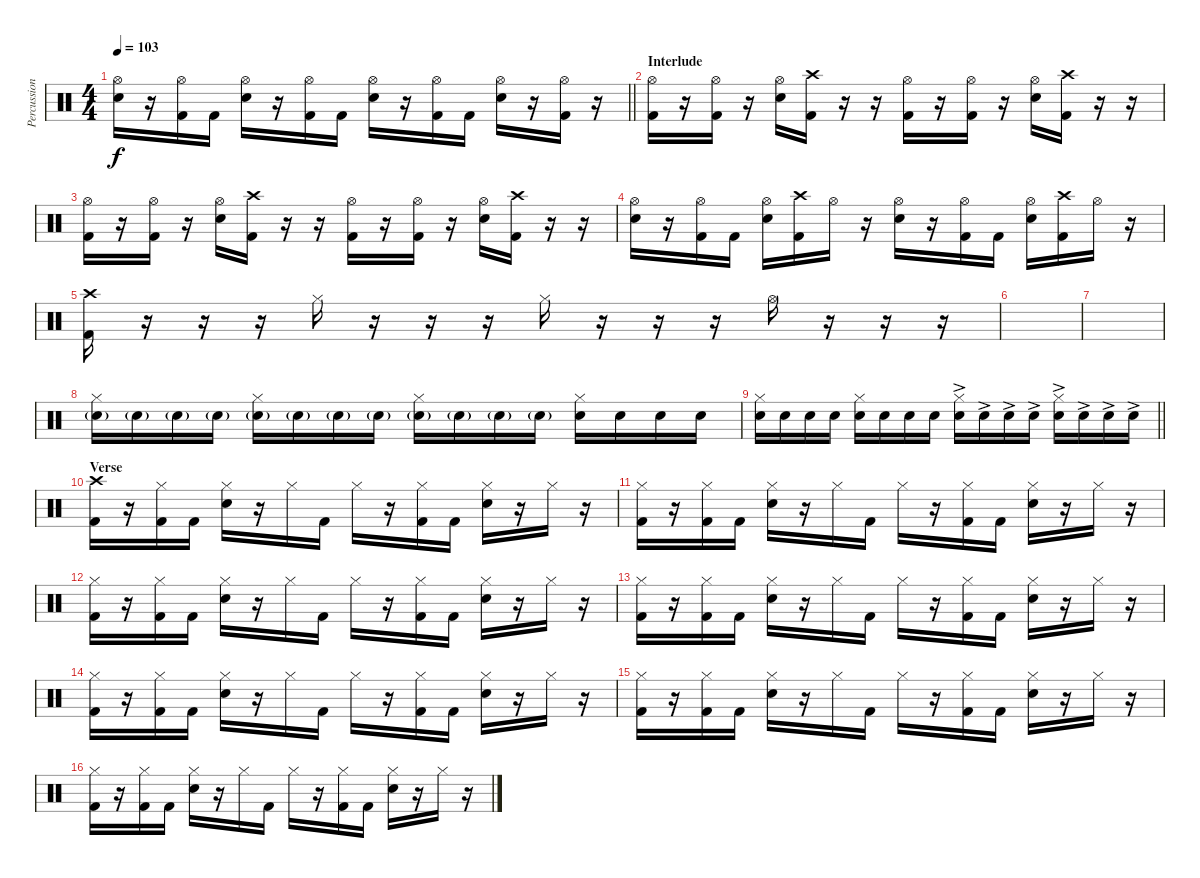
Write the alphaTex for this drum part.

\track ("Percussion" "Percussion") {instrument percussion}
\staff {score}
\articulation defaults
\ts (4 4)
\tempo 103
\clef neutral
\barLineRight lightlight
\ks c
("Hi-Hat (open)" "Snare (hit) 2").16{dy f} r.16 ("Hi-Hat (open)" "Kick (hit) 2").16 "Kick (hit) 2".16 ("Hi-Hat (open)" "Snare (hit) 2").16 r.16 ("Hi-Hat (open)" "Kick (hit) 2").16 "Kick (hit) 2".16 ("Hi-Hat (open)" "Snare (hit) 2").16 r.16 ("Hi-Hat (open)" "Kick (hit) 2").16 "Kick (hit) 2".16 ("Hi-Hat (open)" "Snare (hit) 2").16 r.16 ("Hi-Hat (open)" "Kick (hit) 2").16 r.16 |
\section ("" "Interlude")
("Hi-Hat (open)" "Kick (hit) 2").16 r.16 ("Hi-Hat (open)" "Kick (hit) 2").16 r.16 ("Hi-Hat (open)" "Snare (hit) 2").16 ("Crash high (hit)" "Kick (hit) 2").16 r.16 r.16 ("Hi-Hat (open)" "Kick (hit) 2").16 r.16 ("Hi-Hat (open)" "Kick (hit) 2").16 r.16 ("Hi-Hat (open)" "Snare (hit) 2").16 ("Crash high (hit)" "Kick (hit) 2").16 r.16 r.16 |
("Hi-Hat (open)" "Kick (hit) 2").16 r.16 ("Hi-Hat (open)" "Kick (hit) 2").16 r.16 ("Hi-Hat (open)" "Snare (hit) 2").16 ("Crash high (hit)" "Kick (hit) 2").16 r.16 r.16 ("Hi-Hat (open)" "Kick (hit) 2").16 r.16 ("Hi-Hat (open)" "Kick (hit) 2").16 r.16 ("Hi-Hat (open)" "Snare (hit) 2").16 ("Crash high (hit)" "Kick (hit) 2").16 r.16 r.16 |
("Hi-Hat (open)" "Snare (hit) 2").16 r.16 ("Hi-Hat (open)" "Kick (hit) 2").16 "Kick (hit) 2".16 ("Hi-Hat (open)" "Snare (hit) 2").16 ("Crash high (hit)" "Kick (hit) 2").16 "Hi-Hat (open)".16 r.16 ("Hi-Hat (open)" "Snare (hit) 2").16 r.16 ("Hi-Hat (open)" "Kick (hit) 2").16 "Kick (hit) 2".16 ("Hi-Hat (open)" "Snare (hit) 2").16 ("Crash high (hit)" "Kick (hit) 2").16 "Hi-Hat (open)".16 r.16 |
("Crash high (hit)" "Kick (hit) 2").16 r.16 r.16 r.16 "Hi-Hat (closed)".16 r.16 r.16 r.16 "Hi-Hat (closed)".16 r.16 r.16 r.16 "Hi-Hat (open)".16 r.16 r.16 r.16 |
|
|
("Hi-Hat (closed)" "Snare (hit) 2"{g}).16{volume 13} "Snare (hit) 2"{g}.16 "Snare (hit) 2"{g}.16 "Snare (hit) 2"{g}.16 ("Hi-Hat (closed)" "Snare (hit) 2"{g}).16 "Snare (hit) 2"{g}.16 "Snare (hit) 2"{g}.16 "Snare (hit) 2"{g}.16 ("Hi-Hat (closed)" "Snare (hit) 2"{g}).16 "Snare (hit) 2"{g}.16 "Snare (hit) 2"{g}.16 "Snare (hit) 2"{g}.16 ("Hi-Hat (closed)" "Snare (hit) 2").16 "Snare (hit) 2".16 "Snare (hit) 2".16 "Snare (hit) 2".16 |
\barLineRight lightlight
("Hi-Hat (closed)" "Snare (hit) 2").16 "Snare (hit) 2".16 "Snare (hit) 2".16 "Snare (hit) 2".16 ("Hi-Hat (closed)" "Snare (hit) 2").16 "Snare (hit) 2".16 "Snare (hit) 2".16 "Snare (hit) 2".16 ("Hi-Hat (closed)" "Snare (hit) 2"{ac}).16 "Snare (hit) 2"{ac}.16 "Snare (hit) 2"{ac}.16 "Snare (hit) 2"{ac}.16 ("Hi-Hat (closed)" "Snare (hit) 2"{ac}).16 "Snare (hit) 2"{ac}.16 "Snare (hit) 2"{ac}.16 "Snare (hit) 2"{ac}.16 |
\section ("" "Verse")
("Crash high (hit)" "Kick (hit) 2").16 r.16 ("Hi-Hat (closed)" "Kick (hit) 2").16 "Kick (hit) 2".16 ("Hi-Hat (closed)" "Snare (hit) 2").16 r.16 "Hi-Hat (closed)".16 "Kick (hit) 2".16 "Hi-Hat (closed)".16 r.16 ("Hi-Hat (closed)" "Kick (hit) 2").16 "Kick (hit) 2".16 ("Hi-Hat (closed)" "Snare (hit) 2").16 r.16 "Hi-Hat (closed)".16 r.16 |
("Hi-Hat (closed)" "Kick (hit) 2").16 r.16 ("Hi-Hat (closed)" "Kick (hit) 2").16 "Kick (hit) 2".16 ("Hi-Hat (closed)" "Snare (hit) 2").16 r.16 "Hi-Hat (closed)".16 "Kick (hit) 2".16 "Hi-Hat (closed)".16 r.16 ("Hi-Hat (closed)" "Kick (hit) 2").16 "Kick (hit) 2".16 ("Hi-Hat (closed)" "Snare (hit) 2").16 r.16 "Hi-Hat (closed)".16 r.16 |
("Hi-Hat (closed)" "Kick (hit) 2").16 r.16 ("Hi-Hat (closed)" "Kick (hit) 2").16 "Kick (hit) 2".16 ("Hi-Hat (closed)" "Snare (hit) 2").16 r.16 "Hi-Hat (closed)".16 "Kick (hit) 2".16 "Hi-Hat (closed)".16 r.16 ("Hi-Hat (closed)" "Kick (hit) 2").16 "Kick (hit) 2".16 ("Hi-Hat (closed)" "Snare (hit) 2").16 r.16 "Hi-Hat (closed)".16 r.16 |
("Hi-Hat (closed)" "Kick (hit) 2").16 r.16 ("Hi-Hat (closed)" "Kick (hit) 2").16 "Kick (hit) 2".16 ("Hi-Hat (closed)" "Snare (hit) 2").16 r.16 "Hi-Hat (closed)".16 "Kick (hit) 2".16 "Hi-Hat (closed)".16 r.16 ("Hi-Hat (closed)" "Kick (hit) 2").16 "Kick (hit) 2".16 ("Hi-Hat (closed)" "Snare (hit) 2").16 r.16 "Hi-Hat (closed)".16 r.16 |
("Hi-Hat (closed)" "Kick (hit) 2").16 r.16 ("Hi-Hat (closed)" "Kick (hit) 2").16 "Kick (hit) 2".16 ("Hi-Hat (closed)" "Snare (hit) 2").16 r.16 "Hi-Hat (closed)".16 "Kick (hit) 2".16 "Hi-Hat (closed)".16 r.16 ("Hi-Hat (closed)" "Kick (hit) 2").16 "Kick (hit) 2".16 ("Hi-Hat (closed)" "Snare (hit) 2").16 r.16 "Hi-Hat (closed)".16 r.16 |
("Hi-Hat (closed)" "Kick (hit) 2").16 r.16 ("Hi-Hat (closed)" "Kick (hit) 2").16 "Kick (hit) 2".16 ("Hi-Hat (closed)" "Snare (hit) 2").16 r.16 "Hi-Hat (closed)".16 "Kick (hit) 2".16 "Hi-Hat (closed)".16 r.16 ("Hi-Hat (closed)" "Kick (hit) 2").16 "Kick (hit) 2".16 ("Hi-Hat (closed)" "Snare (hit) 2").16 r.16 "Hi-Hat (closed)".16 r.16 |
("Hi-Hat (closed)" "Kick (hit) 2").16 r.16 ("Hi-Hat (closed)" "Kick (hit) 2").16 "Kick (hit) 2".16 ("Hi-Hat (closed)" "Snare (hit) 2").16 r.16 "Hi-Hat (closed)".16 "Kick (hit) 2".16 "Hi-Hat (closed)".16 r.16 ("Hi-Hat (closed)" "Kick (hit) 2").16 "Kick (hit) 2".16 ("Hi-Hat (closed)" "Snare (hit) 2").16 r.16 "Hi-Hat (closed)".16 r.16
